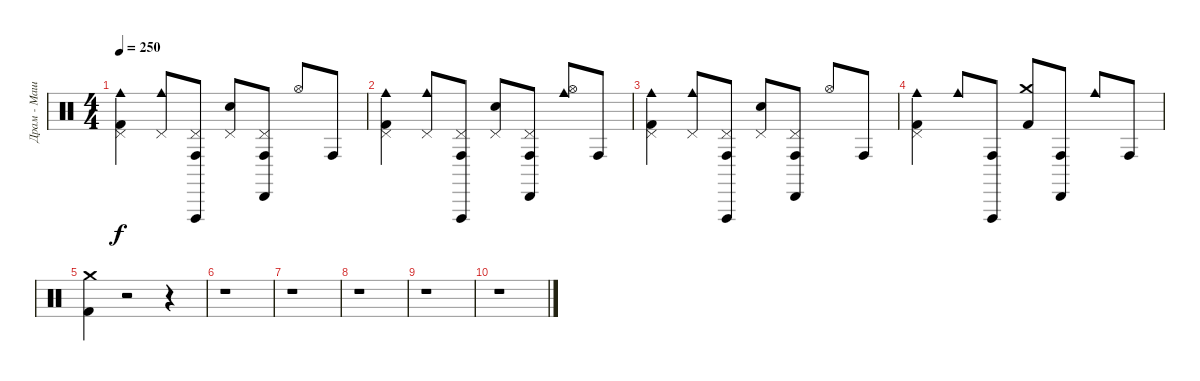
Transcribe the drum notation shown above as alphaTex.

\track ("Драм - Машина" "Драм - Маш") {instrument percussion}
\staff {score}
\articulation defaults
\ts (4 4)
\tempo 250
\clef neutral
\ks c
("Cowbell medium (hit)" "Pedal Hi-Hat (hit)" "Kick (hit) 2").4{dy f} ("Cowbell medium (hit)" "Pedal Hi-Hat (hit)").8 ("Conga high (hit)" "Vibraslap (hit)" "Pedal Hi-Hat (hit)").8 ("Pedal Hi-Hat (hit)" "Snare (hit) 2").8 ("Cabasa (hit)" "Conga high (hit)" "Pedal Hi-Hat (hit)").8 "Hi-Hat (open)".8 "Conga high (hit)".8 |
("Cowbell medium (hit)" "Pedal Hi-Hat (hit)" "Kick (hit) 2").4 ("Cowbell medium (hit)" "Pedal Hi-Hat (hit)").8 ("Conga high (hit)" "Vibraslap (hit)" "Pedal Hi-Hat (hit)").8 ("Pedal Hi-Hat (hit)" "Snare (hit) 2").8 ("Cabasa (hit)" "Conga high (hit)" "Pedal Hi-Hat (hit)").8 ("Cowbell medium (hit)" "Hi-Hat (open)").8 "Conga high (hit)".8 |
("Cowbell medium (hit)" "Pedal Hi-Hat (hit)" "Kick (hit) 2").4 ("Cowbell medium (hit)" "Pedal Hi-Hat (hit)").8 ("Conga high (hit)" "Vibraslap (hit)" "Pedal Hi-Hat (hit)").8 ("Pedal Hi-Hat (hit)" "Snare (hit) 2").8 ("Cabasa (hit)" "Conga high (hit)" "Pedal Hi-Hat (hit)").8 "Hi-Hat (open)".8 "Conga high (hit)".8 |
("Cowbell medium (hit)" "Pedal Hi-Hat (hit)" "Kick (hit) 2").4 "Cowbell medium (hit)".8 ("Conga high (hit)" "Vibraslap (hit)").8 ("Crash medium (hit)" "Kick (hit) 2").8 ("Cabasa (hit)" "Conga high (hit)").8 "Cowbell medium (hit)".8 "Conga high (hit)".8 |
("Crash medium (hit)" "Kick (hit) 2").4 r.2 r.4 |
r.1 |
r.1 |
r.1 |
r.1 |
r.1
